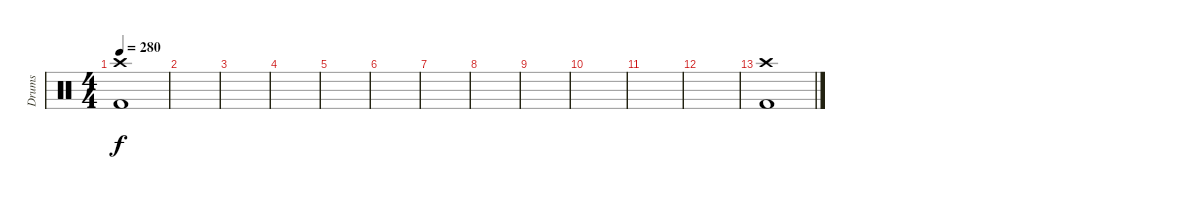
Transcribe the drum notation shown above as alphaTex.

\track ("Drums" "Drums") {instrument percussion}
\staff {score}
\articulation defaults
\ts (4 4)
\tempo 280
\clef neutral
\ks c
("Crash high (hit)" "Kick (hit) 2").1{dy f} |
|
|
|
|
|
|
|
|
|
|
|
("Crash high (hit)" "Kick (hit) 2").1
